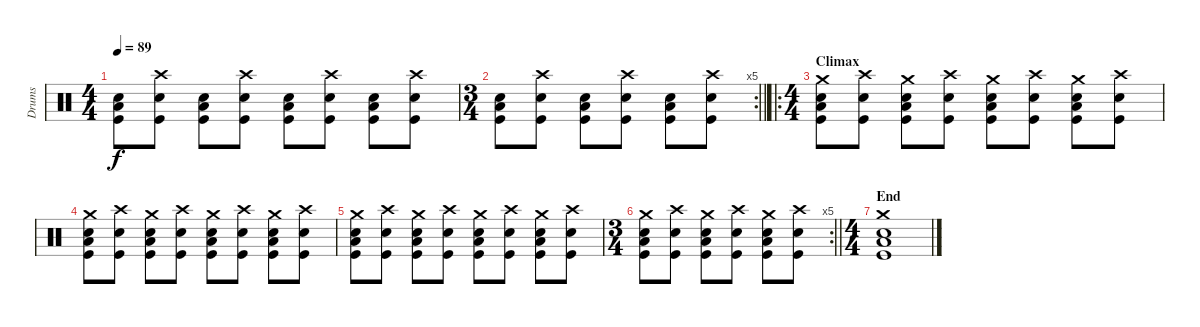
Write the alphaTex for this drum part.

\track ("Drums" "Drums") {instrument percussion}
\staff {score}
\articulation defaults
\ts (4 4)
\tempo 89
\clef neutral
\ks c
("Low Floor Tom (hit)" "Hand Clap (hit)" "Kick (hit)").8{dy f} ("Crash high (hit)" "Hand Clap (hit)" "Kick (hit)").8 ("Low Floor Tom (hit)" "Hand Clap (hit)" "Kick (hit)").8 ("Crash high (hit)" "Hand Clap (hit)" "Kick (hit)").8 ("Low Floor Tom (hit)" "Hand Clap (hit)" "Kick (hit)").8 ("Crash high (hit)" "Hand Clap (hit)" "Kick (hit)").8 ("Low Floor Tom (hit)" "Hand Clap (hit)" "Kick (hit)").8 ("Crash high (hit)" "Hand Clap (hit)" "Kick (hit)").8 |
\rc 5
\ts (3 4)
\barLineRight lightlight
("Low Floor Tom (hit)" "Hand Clap (hit)" "Kick (hit)").8 ("Crash high (hit)" "Hand Clap (hit)" "Kick (hit)").8 ("Low Floor Tom (hit)" "Hand Clap (hit)" "Kick (hit)").8 ("Crash high (hit)" "Hand Clap (hit)" "Kick (hit)").8 ("Low Floor Tom (hit)" "Hand Clap (hit)" "Kick (hit)").8 ("Crash high (hit)" "Hand Clap (hit)" "Kick (hit)").8 |
\ro
\ts (4 4)
\section ("" "Climax")
("Crash medium (hit)" "Low Floor Tom (hit)" "Hand Clap (hit)" "Kick (hit)").8 ("Crash high (hit)" "Hand Clap (hit)" "Kick (hit)").8 ("Crash medium (hit)" "Low Floor Tom (hit)" "Hand Clap (hit)" "Kick (hit)").8 ("Crash high (hit)" "Hand Clap (hit)" "Kick (hit)").8 ("Crash medium (hit)" "Low Floor Tom (hit)" "Hand Clap (hit)" "Kick (hit)").8 ("Crash high (hit)" "Hand Clap (hit)" "Kick (hit)").8 ("Crash medium (hit)" "Low Floor Tom (hit)" "Hand Clap (hit)" "Kick (hit)").8 ("Crash high (hit)" "Hand Clap (hit)" "Kick (hit)").8 |
("Crash medium (hit)" "Low Floor Tom (hit)" "Hand Clap (hit)" "Kick (hit)").8 ("Crash high (hit)" "Hand Clap (hit)" "Kick (hit)").8 ("Crash medium (hit)" "Low Floor Tom (hit)" "Hand Clap (hit)" "Kick (hit)").8 ("Crash high (hit)" "Hand Clap (hit)" "Kick (hit)").8 ("Crash medium (hit)" "Low Floor Tom (hit)" "Hand Clap (hit)" "Kick (hit)").8 ("Crash high (hit)" "Hand Clap (hit)" "Kick (hit)").8 ("Crash medium (hit)" "Low Floor Tom (hit)" "Hand Clap (hit)" "Kick (hit)").8 ("Crash high (hit)" "Hand Clap (hit)" "Kick (hit)").8 |
("Crash medium (hit)" "Low Floor Tom (hit)" "Hand Clap (hit)" "Kick (hit)").8 ("Crash high (hit)" "Hand Clap (hit)" "Kick (hit)").8 ("Crash medium (hit)" "Low Floor Tom (hit)" "Hand Clap (hit)" "Kick (hit)").8 ("Crash high (hit)" "Hand Clap (hit)" "Kick (hit)").8 ("Crash medium (hit)" "Low Floor Tom (hit)" "Hand Clap (hit)" "Kick (hit)").8 ("Crash high (hit)" "Hand Clap (hit)" "Kick (hit)").8 ("Crash medium (hit)" "Low Floor Tom (hit)" "Hand Clap (hit)" "Kick (hit)").8 ("Crash high (hit)" "Hand Clap (hit)" "Kick (hit)").8 |
\rc 5
\ts (3 4)
\barLineRight lightlight
("Crash medium (hit)" "Low Floor Tom (hit)" "Hand Clap (hit)" "Kick (hit)").8 ("Crash high (hit)" "Hand Clap (hit)" "Kick (hit)").8 ("Crash medium (hit)" "Low Floor Tom (hit)" "Hand Clap (hit)" "Kick (hit)").8 ("Crash high (hit)" "Hand Clap (hit)" "Kick (hit)").8 ("Crash medium (hit)" "Low Floor Tom (hit)" "Hand Clap (hit)" "Kick (hit)").8 ("Crash high (hit)" "Hand Clap (hit)" "Kick (hit)").8 |
\ts (4 4)
\section ("" "End")
("Crash medium (hit)" "Low Floor Tom (hit)" "Hand Clap (hit)" "Kick (hit)").1
